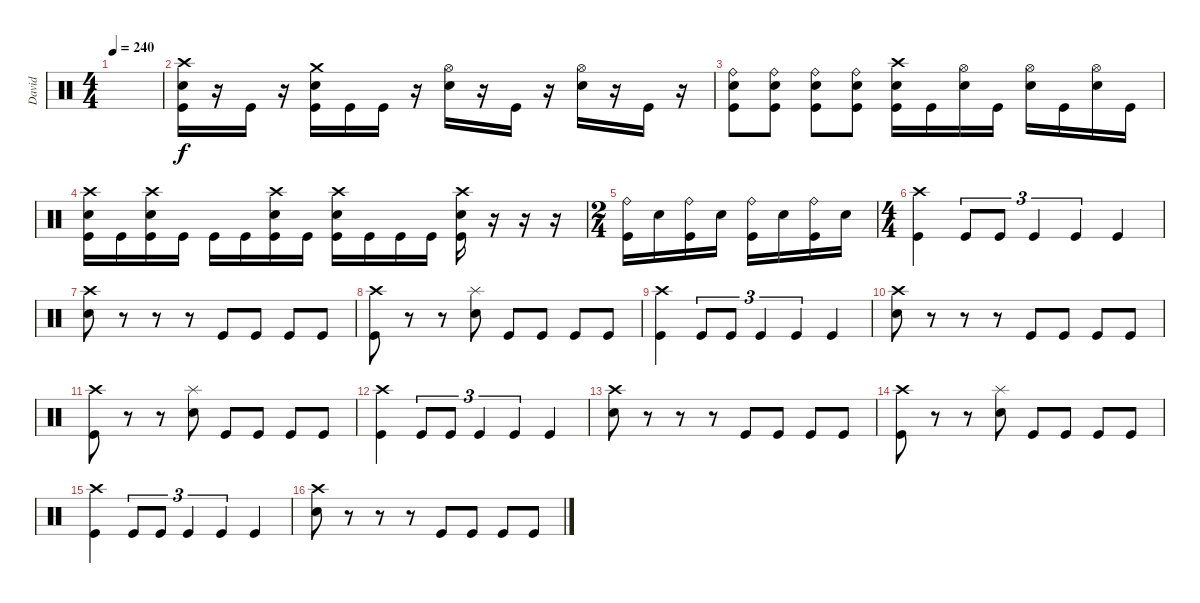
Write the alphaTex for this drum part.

\track ("David" "David") {instrument percussion}
\staff {score}
\articulation defaults
\ts (4 4)
\tempo 240
\clef neutral
\ks c
|
("Crash high (hit)" "Electric Snare (hit)" "Kick (hit)").16 r.16 "Kick (hit)".16 r.16 ("Crash medium (hit)" "Electric Snare (hit)" "Kick (hit)").16 "Kick (hit)".16 "Kick (hit)".16 r.16 ("Hi-Hat (open)" "Electric Snare (hit)").16 r.16 "Kick (hit)".16 r.16 ("Hi-Hat (open)" "Electric Snare (hit)").16 r.16 "Kick (hit)".16 r.16 |
("Ride (bell)" "Electric Snare (hit)" "Kick (hit)").8 ("Ride (bell)" "Electric Snare (hit)" "Kick (hit)").8 ("Ride (bell)" "Electric Snare (hit)" "Kick (hit)").8 ("Ride (bell)" "Electric Snare (hit)" "Kick (hit)").8 ("Crash high (hit)" "Electric Snare (hit)" "Kick (hit)").16 "Kick (hit)".16 ("Hi-Hat (open)" "Electric Snare (hit)").16 "Kick (hit)".16 ("Hi-Hat (open)" "Electric Snare (hit)").16 "Kick (hit)".16 ("Hi-Hat (open)" "Electric Snare (hit)").16 "Kick (hit)".16 |
("Crash high (hit)" "Electric Snare (hit)" "Kick (hit)").16 "Kick (hit)".16 ("Crash high (hit)" "Electric Snare (hit)" "Kick (hit)").16 "Kick (hit)".16 "Kick (hit)".16 "Kick (hit)".16 ("Crash high (hit)" "Electric Snare (hit)" "Kick (hit)").16 "Kick (hit)".16 ("Crash high (hit)" "Electric Snare (hit)" "Kick (hit)").16 "Kick (hit)".16 "Kick (hit)".16 "Kick (hit)".16 ("Crash high (hit)" "Electric Snare (hit)" "Kick (hit)").16 r.16 r.16 r.16 |
\ts (2 4)
("Ride (bell)" "Kick (hit)").16 "Electric Snare (hit)".16 ("Ride (bell)" "Kick (hit)").16 "Electric Snare (hit)".16 ("Ride (bell)" "Kick (hit)").16 "Electric Snare (hit)".16 ("Ride (bell)" "Kick (hit)").16 "Electric Snare (hit)".16 |
\ts (4 4)
("Crash high (hit)" "Kick (hit)").4 "Kick (hit)".8{tu (3 2)} "Kick (hit)".8{tu (3 2)} "Kick (hit)".4{tu (3 2)} "Kick (hit)".4{tu (3 2)} "Kick (hit)".4 |
("Crash high (hit)" "Electric Snare (hit)").8 r.8 r.8 r.8 "Kick (hit)".8 "Kick (hit)".8 "Kick (hit)".8 "Kick (hit)".8 |
("Crash high (hit)" "Kick (hit)").8 r.8 r.8 ("Splash (hit)" "Electric Snare (hit)").8 "Kick (hit)".8 "Kick (hit)".8 "Kick (hit)".8 "Kick (hit)".8 |
("Crash high (hit)" "Kick (hit)").4 "Kick (hit)".8{tu (3 2)} "Kick (hit)".8{tu (3 2)} "Kick (hit)".4{tu (3 2)} "Kick (hit)".4{tu (3 2)} "Kick (hit)".4 |
("Crash high (hit)" "Electric Snare (hit)").8 r.8 r.8 r.8 "Kick (hit)".8 "Kick (hit)".8 "Kick (hit)".8 "Kick (hit)".8 |
("Crash high (hit)" "Kick (hit)").8 r.8 r.8 ("Splash (hit)" "Electric Snare (hit)").8 "Kick (hit)".8 "Kick (hit)".8 "Kick (hit)".8 "Kick (hit)".8 |
("Crash high (hit)" "Kick (hit)").4 "Kick (hit)".8{tu (3 2)} "Kick (hit)".8{tu (3 2)} "Kick (hit)".4{tu (3 2)} "Kick (hit)".4{tu (3 2)} "Kick (hit)".4 |
("Crash high (hit)" "Electric Snare (hit)").8 r.8 r.8 r.8 "Kick (hit)".8 "Kick (hit)".8 "Kick (hit)".8 "Kick (hit)".8 |
("Crash high (hit)" "Kick (hit)").8 r.8 r.8 ("Splash (hit)" "Electric Snare (hit)").8 "Kick (hit)".8 "Kick (hit)".8 "Kick (hit)".8 "Kick (hit)".8 |
("Crash high (hit)" "Kick (hit)").4 "Kick (hit)".8{tu (3 2)} "Kick (hit)".8{tu (3 2)} "Kick (hit)".4{tu (3 2)} "Kick (hit)".4{tu (3 2)} "Kick (hit)".4 |
("Crash high (hit)" "Electric Snare (hit)").8 r.8 r.8 r.8 "Kick (hit)".8 "Kick (hit)".8 "Kick (hit)".8 "Kick (hit)".8
